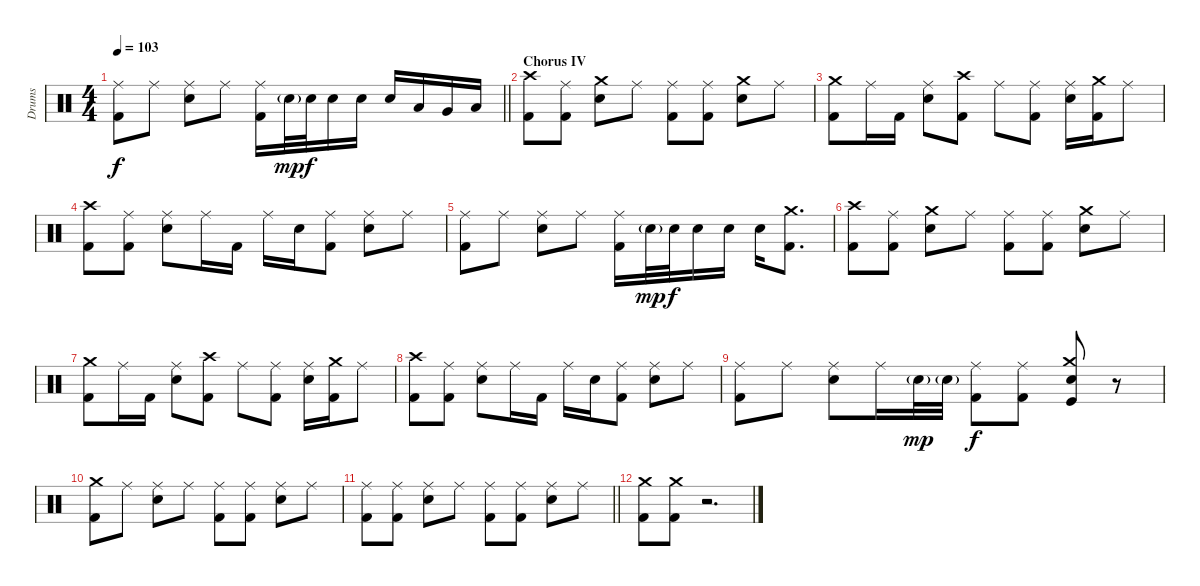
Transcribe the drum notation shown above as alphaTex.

\track ("Drums" "Drums") {instrument percussion}
\staff {score}
\articulation defaults
\ts (4 4)
\tempo 103
\clef neutral
\barLineRight lightlight
\ks c
("Ride (middle)" "Kick (hit) 2").8{dy f} "Ride (middle)".8 ("Ride (middle)" "Electric Snare (hit)").8 "Ride (middle)".8 ("Ride (middle)" "Kick (hit) 2").16 "Electric Snare (hit)"{g}.32{dy mp} "Electric Snare (hit)".32{dy f} "Electric Snare (hit)".16 "Electric Snare (hit)".16 "Electric Snare (hit)".16 "Low Tom (hit)".16 "Very Low Tom (hit)".16 "Low Floor Tom (hit)".16 |
\section ("" "Chorus IV")
("Crash high (hit)" "Kick (hit) 2").8 ("Ride (middle)" "Kick (hit) 2").8 ("Crash medium (hit)" "Electric Snare (hit)").8 "Ride (middle)".8 ("Ride (middle)" "Kick (hit) 2").8 ("Ride (middle)" "Kick (hit) 2").8 ("Crash medium (hit)" "Electric Snare (hit)").8 "Ride (middle)".8 |
("Crash medium (hit)" "Kick (hit) 2").8 "Ride (middle)".16 "Kick (hit) 2".16 ("Ride (middle)" "Electric Snare (hit)").8 ("Crash high (hit)" "Kick (hit) 2").8 "Ride (middle)".8 ("Ride (middle)" "Kick (hit) 2").8 ("Ride (middle)" "Electric Snare (hit)").16 ("Crash medium (hit)" "Kick (hit) 2").16 "Ride (middle)".8 |
("Crash high (hit)" "Kick (hit) 2").8 ("Ride (middle)" "Kick (hit) 2").8 ("Ride (middle)" "Electric Snare (hit)").8 "Ride (middle)".16 "Kick (hit) 2".16 "Ride (middle)".16 "Electric Snare (hit)".16 ("Ride (middle)" "Kick (hit) 2").8 ("Ride (middle)" "Electric Snare (hit)").8 "Ride (middle)".8 |
("Ride (middle)" "Kick (hit) 2").8 "Ride (middle)".8 ("Ride (middle)" "Electric Snare (hit)").8 "Ride (middle)".8 ("Ride (middle)" "Kick (hit) 2").16 "Electric Snare (hit)"{g}.32{dy mp} "Electric Snare (hit)".32{dy f} "Electric Snare (hit)".16 "Electric Snare (hit)".16 "Electric Snare (hit)".16 ("Crash medium (hit)" "Kick (hit) 2").8{d} |
("Crash high (hit)" "Kick (hit) 2").8 ("Ride (middle)" "Kick (hit) 2").8 ("Crash medium (hit)" "Electric Snare (hit)").8 "Ride (middle)".8 ("Ride (middle)" "Kick (hit) 2").8 ("Ride (middle)" "Kick (hit) 2").8 ("Crash medium (hit)" "Electric Snare (hit)").8 "Ride (middle)".8 |
("Crash medium (hit)" "Kick (hit) 2").8 "Ride (middle)".16 "Kick (hit) 2".16 ("Ride (middle)" "Electric Snare (hit)").8 ("Crash high (hit)" "Kick (hit) 2").8 "Ride (middle)".8 ("Ride (middle)" "Kick (hit) 2").8 ("Ride (middle)" "Electric Snare (hit)").16 ("Crash medium (hit)" "Kick (hit) 2").16 "Ride (middle)".8 |
("Crash high (hit)" "Kick (hit) 2").8 ("Ride (middle)" "Kick (hit) 2").8 ("Ride (middle)" "Electric Snare (hit)").8 "Ride (middle)".16 "Kick (hit) 2".16 "Ride (middle)".16 "Electric Snare (hit)".16 ("Ride (middle)" "Kick (hit) 2").8 ("Ride (middle)" "Electric Snare (hit)").8 "Ride (middle)".8 |
("Ride (middle)" "Kick (hit) 2").8 "Ride (middle)".8 ("Ride (middle)" "Electric Snare (hit)").8 "Ride (middle)".16 "Electric Snare (hit)"{g}.32{dy mp} "Electric Snare (hit)"{g}.32 ("Ride (middle)" "Kick (hit) 2").8{dy f} ("Ride (middle)" "Kick (hit) 2").8 ("Crash medium (hit)" "Electric Snare (hit)" "Kick (hit)").8 r.8 |
("Crash medium (hit)" "Kick (hit) 2").8 "Ride (middle)".8 ("Ride (middle)" "Electric Snare (hit)").8 "Ride (middle)".8 ("Ride (middle)" "Kick (hit) 2").8 ("Ride (middle)" "Kick (hit) 2").8 ("Ride (middle)" "Electric Snare (hit)").8 "Ride (middle)".8 |
\barLineRight lightlight
("Ride (middle)" "Kick (hit) 2").8 ("Ride (middle)" "Kick (hit) 2").8 ("Ride (middle)" "Electric Snare (hit)").8 "Ride (middle)".8 ("Ride (middle)" "Kick (hit) 2").8 ("Ride (middle)" "Kick (hit) 2").8 ("Ride (middle)" "Electric Snare (hit)").8 "Ride (middle)".8 |
("Crash medium (hit)" "Kick (hit) 2").8 ("Crash medium (hit)" "Kick (hit) 2").8 r.2{d volume 0}
